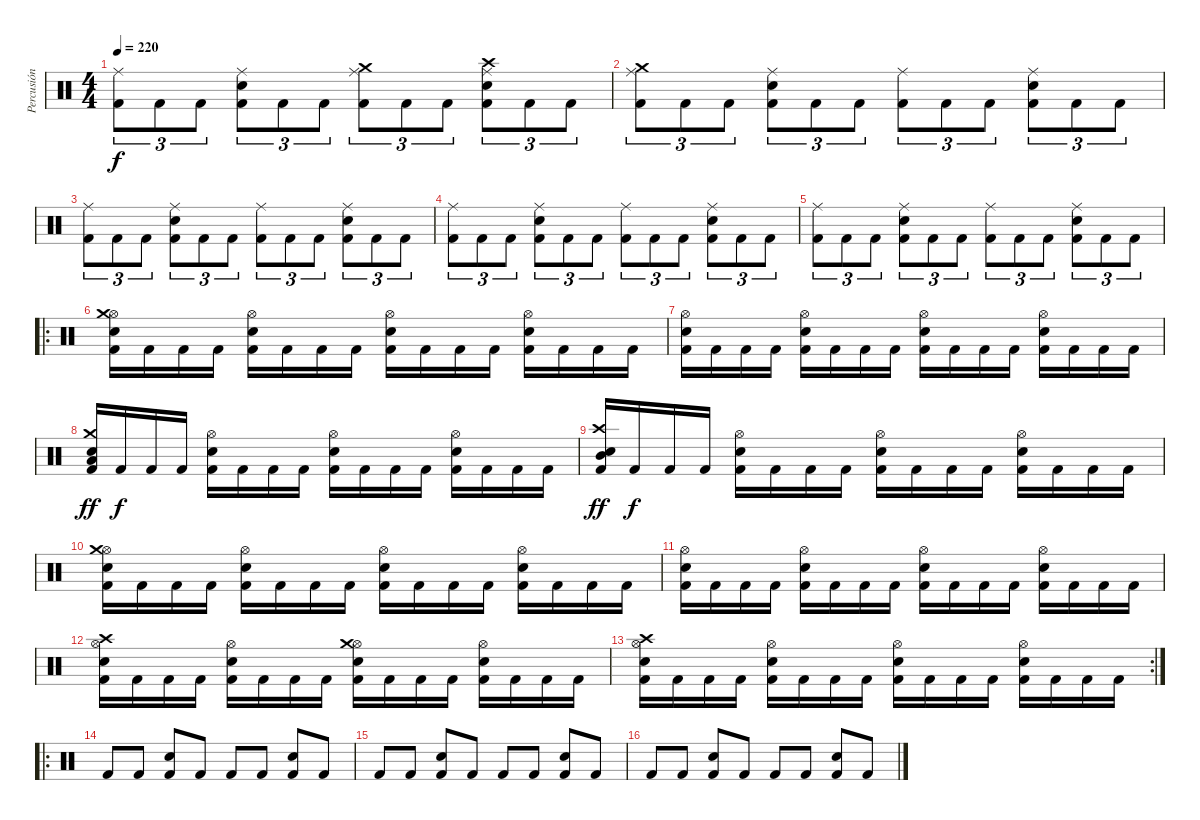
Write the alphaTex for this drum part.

\track ("Percusión" "Percusión") {instrument percussion}
\staff {score}
\articulation defaults
\ts (4 4)
\tempo 220
\clef neutral
\ks c
("Ride (middle)" "Kick (hit) 2").8{tu (3 2) dy f} "Kick (hit) 2".8{tu (3 2)} "Kick (hit) 2".8{tu (3 2)} ("Ride (middle)" "Snare (hit) 2" "Kick (hit) 2").8{tu (3 2)} "Kick (hit) 2".8{tu (3 2)} "Kick (hit) 2".8{tu (3 2)} ("Ride (middle)" "Crash medium (hit)" "Kick (hit) 2").8{tu (3 2)} "Kick (hit) 2".8{tu (3 2)} "Kick (hit) 2".8{tu (3 2)} ("Ride (middle)" "Crash high (hit)" "Snare (hit) 2" "Kick (hit) 2").8{tu (3 2)} "Kick (hit) 2".8{tu (3 2)} "Kick (hit) 2".8{tu (3 2)} |
("Ride (middle)" "Crash medium (hit)" "Kick (hit) 2").8{tu (3 2)} "Kick (hit) 2".8{tu (3 2)} "Kick (hit) 2".8{tu (3 2)} ("Ride (middle)" "Snare (hit) 2" "Kick (hit) 2").8{tu (3 2)} "Kick (hit) 2".8{tu (3 2)} "Kick (hit) 2".8{tu (3 2)} ("Ride (middle)" "Kick (hit) 2").8{tu (3 2)} "Kick (hit) 2".8{tu (3 2)} "Kick (hit) 2".8{tu (3 2)} ("Ride (middle)" "Snare (hit) 2" "Kick (hit) 2").8{tu (3 2)} "Kick (hit) 2".8{tu (3 2)} "Kick (hit) 2".8{tu (3 2)} |
("Ride (middle)" "Kick (hit) 2").8{tu (3 2)} "Kick (hit) 2".8{tu (3 2)} "Kick (hit) 2".8{tu (3 2)} ("Ride (middle)" "Snare (hit) 2" "Kick (hit) 2").8{tu (3 2)} "Kick (hit) 2".8{tu (3 2)} "Kick (hit) 2".8{tu (3 2)} ("Ride (middle)" "Kick (hit) 2").8{tu (3 2)} "Kick (hit) 2".8{tu (3 2)} "Kick (hit) 2".8{tu (3 2)} ("Ride (middle)" "Snare (hit) 2" "Kick (hit) 2").8{tu (3 2)} "Kick (hit) 2".8{tu (3 2)} "Kick (hit) 2".8{tu (3 2)} |
("Ride (middle)" "Kick (hit) 2").8{tu (3 2)} "Kick (hit) 2".8{tu (3 2)} "Kick (hit) 2".8{tu (3 2)} ("Ride (middle)" "Snare (hit) 2" "Kick (hit) 2").8{tu (3 2)} "Kick (hit) 2".8{tu (3 2)} "Kick (hit) 2".8{tu (3 2)} ("Ride (middle)" "Kick (hit) 2").8{tu (3 2)} "Kick (hit) 2".8{tu (3 2)} "Kick (hit) 2".8{tu (3 2)} ("Ride (middle)" "Snare (hit) 2" "Kick (hit) 2").8{tu (3 2)} "Kick (hit) 2".8{tu (3 2)} "Kick (hit) 2".8{tu (3 2)} |
("Ride (middle)" "Kick (hit) 2").8{tu (3 2)} "Kick (hit) 2".8{tu (3 2)} "Kick (hit) 2".8{tu (3 2)} ("Ride (middle)" "Snare (hit) 2" "Kick (hit) 2").8{tu (3 2)} "Kick (hit) 2".8{tu (3 2)} "Kick (hit) 2".8{tu (3 2)} ("Ride (middle)" "Kick (hit) 2").8{tu (3 2)} "Kick (hit) 2".8{tu (3 2)} "Kick (hit) 2".8{tu (3 2)} ("Ride (middle)" "Snare (hit) 2" "Kick (hit) 2").8{tu (3 2)} "Kick (hit) 2".8{tu (3 2)} "Kick (hit) 2".8{tu (3 2)} |
\ro
("Hi-Hat (open)" "Crash medium (hit)" "Snare (hit) 2" "Kick (hit) 2").16 "Kick (hit) 2".16 "Kick (hit) 2".16 "Kick (hit) 2".16 ("Hi-Hat (open)" "Snare (hit) 2" "Kick (hit) 2").16 "Kick (hit) 2".16 "Kick (hit) 2".16 "Kick (hit) 2".16 ("Hi-Hat (open)" "Snare (hit) 2" "Kick (hit) 2").16 "Kick (hit) 2".16 "Kick (hit) 2".16 "Kick (hit) 2".16 ("Hi-Hat (open)" "Snare (hit) 2" "Kick (hit) 2").16 "Kick (hit) 2".16 "Kick (hit) 2".16 "Kick (hit) 2".16 |
("Hi-Hat (open)" "Snare (hit) 2" "Kick (hit) 2").16 "Kick (hit) 2".16 "Kick (hit) 2".16 "Kick (hit) 2".16 ("Hi-Hat (open)" "Snare (hit) 2" "Kick (hit) 2").16 "Kick (hit) 2".16 "Kick (hit) 2".16 "Kick (hit) 2".16 ("Hi-Hat (open)" "Snare (hit) 2" "Kick (hit) 2").16 "Kick (hit) 2".16 "Kick (hit) 2".16 "Kick (hit) 2".16 ("Hi-Hat (open)" "Snare (hit) 2" "Kick (hit) 2").16 "Kick (hit) 2".16 "Kick (hit) 2".16 "Kick (hit) 2".16 |
("Crash medium (hit)" "Low Tom (hit)" "Snare (hit) 2" "Kick (hit) 2").16{dy ff} "Kick (hit) 2".16{dy f} "Kick (hit) 2".16 "Kick (hit) 2".16 ("Hi-Hat (open)" "Snare (hit) 2" "Kick (hit) 2").16 "Kick (hit) 2".16 "Kick (hit) 2".16 "Kick (hit) 2".16 ("Hi-Hat (open)" "Snare (hit) 2" "Kick (hit) 2").16 "Kick (hit) 2".16 "Kick (hit) 2".16 "Kick (hit) 2".16 ("Hi-Hat (open)" "Snare (hit) 2" "Kick (hit) 2").16 "Kick (hit) 2".16 "Kick (hit) 2".16 "Kick (hit) 2".16 |
("Crash high (hit)" "Mid Tom (hit)" "Snare (hit) 2" "Kick (hit) 2").16{dy ff} "Kick (hit) 2".16{dy f} "Kick (hit) 2".16 "Kick (hit) 2".16 ("Hi-Hat (open)" "Snare (hit) 2" "Kick (hit) 2").16 "Kick (hit) 2".16 "Kick (hit) 2".16 "Kick (hit) 2".16 ("Hi-Hat (open)" "Snare (hit) 2" "Kick (hit) 2").16 "Kick (hit) 2".16 "Kick (hit) 2".16 "Kick (hit) 2".16 ("Hi-Hat (open)" "Snare (hit) 2" "Kick (hit) 2").16 "Kick (hit) 2".16 "Kick (hit) 2".16 "Kick (hit) 2".16 |
("Hi-Hat (open)" "Crash medium (hit)" "Snare (hit) 2" "Kick (hit) 2").16 "Kick (hit) 2".16 "Kick (hit) 2".16 "Kick (hit) 2".16 ("Hi-Hat (open)" "Snare (hit) 2" "Kick (hit) 2").16 "Kick (hit) 2".16 "Kick (hit) 2".16 "Kick (hit) 2".16 ("Hi-Hat (open)" "Snare (hit) 2" "Kick (hit) 2").16 "Kick (hit) 2".16 "Kick (hit) 2".16 "Kick (hit) 2".16 ("Hi-Hat (open)" "Snare (hit) 2" "Kick (hit) 2").16 "Kick (hit) 2".16 "Kick (hit) 2".16 "Kick (hit) 2".16 |
("Hi-Hat (open)" "Snare (hit) 2" "Kick (hit) 2").16 "Kick (hit) 2".16 "Kick (hit) 2".16 "Kick (hit) 2".16 ("Hi-Hat (open)" "Snare (hit) 2" "Kick (hit) 2").16 "Kick (hit) 2".16 "Kick (hit) 2".16 "Kick (hit) 2".16 ("Hi-Hat (open)" "Snare (hit) 2" "Kick (hit) 2").16 "Kick (hit) 2".16 "Kick (hit) 2".16 "Kick (hit) 2".16 ("Hi-Hat (open)" "Snare (hit) 2" "Kick (hit) 2").16 "Kick (hit) 2".16 "Kick (hit) 2".16 "Kick (hit) 2".16 |
("Hi-Hat (open)" "Crash high (hit)" "Snare (hit) 2" "Kick (hit) 2").16 "Kick (hit) 2".16 "Kick (hit) 2".16 "Kick (hit) 2".16 ("Hi-Hat (open)" "Snare (hit) 2" "Kick (hit) 2").16 "Kick (hit) 2".16 "Kick (hit) 2".16 "Kick (hit) 2".16 ("Hi-Hat (open)" "Crash medium (hit)" "Snare (hit) 2" "Kick (hit) 2").16 "Kick (hit) 2".16 "Kick (hit) 2".16 "Kick (hit) 2".16 ("Hi-Hat (open)" "Snare (hit) 2" "Kick (hit) 2").16 "Kick (hit) 2".16 "Kick (hit) 2".16 "Kick (hit) 2".16 |
\rc 2
("Hi-Hat (open)" "Crash high (hit)" "Snare (hit) 2" "Kick (hit) 2").16 "Kick (hit) 2".16 "Kick (hit) 2".16 "Kick (hit) 2".16 ("Hi-Hat (open)" "Snare (hit) 2" "Kick (hit) 2").16 "Kick (hit) 2".16 "Kick (hit) 2".16 "Kick (hit) 2".16 ("Hi-Hat (open)" "Snare (hit) 2" "Kick (hit) 2").16 "Kick (hit) 2".16 "Kick (hit) 2".16 "Kick (hit) 2".16 ("Hi-Hat (open)" "Snare (hit) 2" "Kick (hit) 2").16 "Kick (hit) 2".16 "Kick (hit) 2".16 "Kick (hit) 2".16 |
\ro "Kick (hit) 2".8 "Kick (hit) 2".8
("Snare (hit) 2" "Kick (hit) 2").8 "Kick (hit) 2".8 "Kick (hit) 2".8 "Kick (hit) 2".8 ("Snare (hit) 2" "Kick (hit) 2").8 "Kick (hit) 2".8 |
"Kick (hit) 2".8 "Kick (hit) 2".8 ("Snare (hit) 2" "Kick (hit) 2").8 "Kick (hit) 2".8 "Kick (hit) 2".8 "Kick (hit) 2".8 ("Snare (hit) 2" "Kick (hit) 2").8 "Kick (hit) 2".8 |
"Kick (hit) 2".8 "Kick (hit) 2".8 ("Snare (hit) 2" "Kick (hit) 2").8 "Kick (hit) 2".8 "Kick (hit) 2".8 "Kick (hit) 2".8 ("Snare (hit) 2" "Kick (hit) 2").8 "Kick (hit) 2".8
